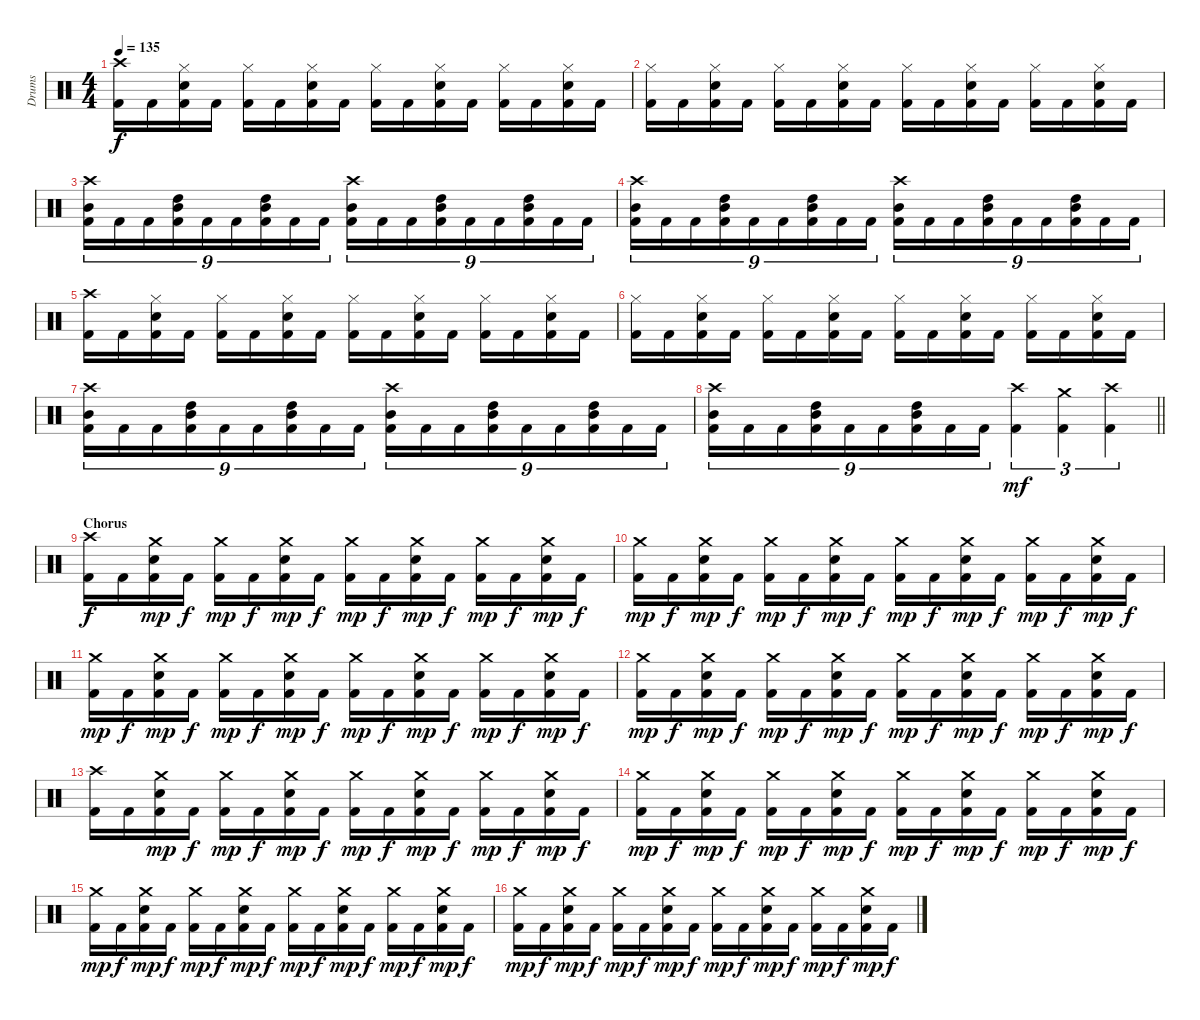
\track ("Drums" "Drums") {instrument percussion}
\staff {score}
\articulation defaults
\ts (4 4)
\tempo 135
\clef neutral
\ks c
("Crash high (hit)" "Kick (hit) 2").16{dy f} "Kick (hit) 2".16 ("Hi-Hat (closed)" "Snare (hit) 2" "Kick (hit) 2").16 "Kick (hit) 2".16 ("Hi-Hat (closed)" "Kick (hit) 2").16 "Kick (hit) 2".16 ("Hi-Hat (closed)" "Snare (hit) 2" "Kick (hit) 2").16 "Kick (hit) 2".16 ("Hi-Hat (closed)" "Kick (hit) 2").16 "Kick (hit) 2".16 ("Hi-Hat (closed)" "Snare (hit) 2" "Kick (hit) 2").16 "Kick (hit) 2".16 ("Hi-Hat (closed)" "Kick (hit) 2").16 "Kick (hit) 2".16 ("Hi-Hat (closed)" "Snare (hit) 2" "Kick (hit) 2").16 "Kick (hit) 2".16 |
("Hi-Hat (closed)" "Kick (hit) 2").16 "Kick (hit) 2".16 ("Hi-Hat (closed)" "Snare (hit) 2" "Kick (hit) 2").16 "Kick (hit) 2".16 ("Hi-Hat (closed)" "Kick (hit) 2").16 "Kick (hit) 2".16 ("Hi-Hat (closed)" "Snare (hit) 2" "Kick (hit) 2").16 "Kick (hit) 2".16 ("Hi-Hat (closed)" "Kick (hit) 2").16 "Kick (hit) 2".16 ("Hi-Hat (closed)" "Snare (hit) 2" "Kick (hit) 2").16 "Kick (hit) 2".16 ("Hi-Hat (closed)" "Kick (hit) 2").16 "Kick (hit) 2".16 ("Hi-Hat (closed)" "Snare (hit) 2" "Kick (hit) 2").16 "Kick (hit) 2".16 |
("Crash high (hit)" "Mid Tom (hit)" "Kick (hit) 2").16{tu (9 8)} "Kick (hit) 2".16{tu (9 8)} "Kick (hit) 2".16{tu (9 8)} ("High Tom (hit)" "Mid Tom (hit)" "Kick (hit) 2").16{tu (9 8)} "Kick (hit) 2".16{tu (9 8)} "Kick (hit) 2".16{tu (9 8)} ("High Tom (hit)" "Mid Tom (hit)" "Kick (hit) 2").16{tu (9 8)} "Kick (hit) 2".16{tu (9 8)} "Kick (hit) 2".16{tu (9 8)} ("Crash high (hit)" "Mid Tom (hit)" "Kick (hit) 2").16{tu (9 8)} "Kick (hit) 2".16{tu (9 8)} "Kick (hit) 2".16{tu (9 8)} ("High Tom (hit)" "Mid Tom (hit)" "Kick (hit) 2").16{tu (9 8)} "Kick (hit) 2".16{tu (9 8)} "Kick (hit) 2".16{tu (9 8)} ("High Tom (hit)" "Mid Tom (hit)" "Kick (hit) 2").16{tu (9 8)} "Kick (hit) 2".16{tu (9 8)} "Kick (hit) 2".16{tu (9 8)} |
("Crash high (hit)" "Mid Tom (hit)" "Kick (hit) 2").16{tu (9 8)} "Kick (hit) 2".16{tu (9 8)} "Kick (hit) 2".16{tu (9 8)} ("High Tom (hit)" "Mid Tom (hit)" "Kick (hit) 2").16{tu (9 8)} "Kick (hit) 2".16{tu (9 8)} "Kick (hit) 2".16{tu (9 8)} ("High Tom (hit)" "Mid Tom (hit)" "Kick (hit) 2").16{tu (9 8)} "Kick (hit) 2".16{tu (9 8)} "Kick (hit) 2".16{tu (9 8)} ("Crash high (hit)" "Mid Tom (hit)" "Kick (hit) 2").16{tu (9 8)} "Kick (hit) 2".16{tu (9 8)} "Kick (hit) 2".16{tu (9 8)} ("High Tom (hit)" "Mid Tom (hit)" "Kick (hit) 2").16{tu (9 8)} "Kick (hit) 2".16{tu (9 8)} "Kick (hit) 2".16{tu (9 8)} ("High Tom (hit)" "Mid Tom (hit)" "Kick (hit) 2").16{tu (9 8)} "Kick (hit) 2".16{tu (9 8)} "Kick (hit) 2".16{tu (9 8)} |
("Crash high (hit)" "Kick (hit) 2").16 "Kick (hit) 2".16 ("Hi-Hat (closed)" "Snare (hit) 2" "Kick (hit) 2").16 "Kick (hit) 2".16 ("Hi-Hat (closed)" "Kick (hit) 2").16 "Kick (hit) 2".16 ("Hi-Hat (closed)" "Snare (hit) 2" "Kick (hit) 2").16 "Kick (hit) 2".16 ("Hi-Hat (closed)" "Kick (hit) 2").16 "Kick (hit) 2".16 ("Hi-Hat (closed)" "Snare (hit) 2" "Kick (hit) 2").16 "Kick (hit) 2".16 ("Hi-Hat (closed)" "Kick (hit) 2").16 "Kick (hit) 2".16 ("Hi-Hat (closed)" "Snare (hit) 2" "Kick (hit) 2").16 "Kick (hit) 2".16 |
("Hi-Hat (closed)" "Kick (hit) 2").16 "Kick (hit) 2".16 ("Hi-Hat (closed)" "Snare (hit) 2" "Kick (hit) 2").16 "Kick (hit) 2".16 ("Hi-Hat (closed)" "Kick (hit) 2").16 "Kick (hit) 2".16 ("Hi-Hat (closed)" "Snare (hit) 2" "Kick (hit) 2").16 "Kick (hit) 2".16 ("Hi-Hat (closed)" "Kick (hit) 2").16 "Kick (hit) 2".16 ("Hi-Hat (closed)" "Snare (hit) 2" "Kick (hit) 2").16 "Kick (hit) 2".16 ("Hi-Hat (closed)" "Kick (hit) 2").16 "Kick (hit) 2".16 ("Hi-Hat (closed)" "Snare (hit) 2" "Kick (hit) 2").16 "Kick (hit) 2".16 |
("Crash high (hit)" "Mid Tom (hit)" "Kick (hit) 2").16{tu (9 8)} "Kick (hit) 2".16{tu (9 8)} "Kick (hit) 2".16{tu (9 8)} ("High Tom (hit)" "Mid Tom (hit)" "Kick (hit) 2").16{tu (9 8)} "Kick (hit) 2".16{tu (9 8)} "Kick (hit) 2".16{tu (9 8)} ("High Tom (hit)" "Mid Tom (hit)" "Kick (hit) 2").16{tu (9 8)} "Kick (hit) 2".16{tu (9 8)} "Kick (hit) 2".16{tu (9 8)} ("Crash high (hit)" "Mid Tom (hit)" "Kick (hit) 2").16{tu (9 8)} "Kick (hit) 2".16{tu (9 8)} "Kick (hit) 2".16{tu (9 8)} ("High Tom (hit)" "Mid Tom (hit)" "Kick (hit) 2").16{tu (9 8)} "Kick (hit) 2".16{tu (9 8)} "Kick (hit) 2".16{tu (9 8)} ("High Tom (hit)" "Mid Tom (hit)" "Kick (hit) 2").16{tu (9 8)} "Kick (hit) 2".16{tu (9 8)} "Kick (hit) 2".16{tu (9 8)} |
\barLineRight lightlight
("Crash high (hit)" "Mid Tom (hit)" "Kick (hit) 2").16{tu (9 8)} "Kick (hit) 2".16{tu (9 8)} "Kick (hit) 2".16{tu (9 8)} ("High Tom (hit)" "Mid Tom (hit)" "Kick (hit) 2").16{tu (9 8)} "Kick (hit) 2".16{tu (9 8)} "Kick (hit) 2".16{tu (9 8)} ("High Tom (hit)" "Mid Tom (hit)" "Kick (hit) 2").16{tu (9 8)} "Kick (hit) 2".16{tu (9 8)} "Kick (hit) 2".16{tu (9 8)} ("Crash high (hit)" "Kick (hit) 2").4{tu (3 2) dy mf} ("Crash medium (hit)" "Kick (hit) 2").4{tu (3 2)} ("Crash high (hit)" "Kick (hit) 2").4{tu (3 2)} |
\section ("" "Chorus")
("Crash high (hit)" "Kick (hit) 2").16{dy f} "Kick (hit) 2".16 ("Crash medium (hit)" "Snare (hit) 2" "Kick (hit) 2").16{dy mp} "Kick (hit) 2".16{dy f} ("Crash medium (hit)" "Kick (hit) 2").16{dy mp} "Kick (hit) 2".16{dy f} ("Crash medium (hit)" "Snare (hit) 2" "Kick (hit) 2").16{dy mp} "Kick (hit) 2".16{dy f} ("Crash medium (hit)" "Kick (hit) 2").16{dy mp} "Kick (hit) 2".16{dy f} ("Crash medium (hit)" "Snare (hit) 2" "Kick (hit) 2").16{dy mp} "Kick (hit) 2".16{dy f} ("Crash medium (hit)" "Kick (hit) 2").16{dy mp} "Kick (hit) 2".16{dy f} ("Crash medium (hit)" "Snare (hit) 2" "Kick (hit) 2").16{dy mp} "Kick (hit) 2".16{dy f} |
("Crash medium (hit)" "Kick (hit) 2").16{dy mp} "Kick (hit) 2".16{dy f} ("Crash medium (hit)" "Snare (hit) 2" "Kick (hit) 2").16{dy mp} "Kick (hit) 2".16{dy f} ("Crash medium (hit)" "Kick (hit) 2").16{dy mp} "Kick (hit) 2".16{dy f} ("Crash medium (hit)" "Snare (hit) 2" "Kick (hit) 2").16{dy mp} "Kick (hit) 2".16{dy f} ("Crash medium (hit)" "Kick (hit) 2").16{dy mp} "Kick (hit) 2".16{dy f} ("Crash medium (hit)" "Snare (hit) 2" "Kick (hit) 2").16{dy mp} "Kick (hit) 2".16{dy f} ("Crash medium (hit)" "Kick (hit) 2").16{dy mp} "Kick (hit) 2".16{dy f} ("Crash medium (hit)" "Snare (hit) 2" "Kick (hit) 2").16{dy mp} "Kick (hit) 2".16{dy f} |
("Crash medium (hit)" "Kick (hit) 2").16{dy mp} "Kick (hit) 2".16{dy f} ("Crash medium (hit)" "Snare (hit) 2" "Kick (hit) 2").16{dy mp} "Kick (hit) 2".16{dy f} ("Crash medium (hit)" "Kick (hit) 2").16{dy mp} "Kick (hit) 2".16{dy f} ("Crash medium (hit)" "Snare (hit) 2" "Kick (hit) 2").16{dy mp} "Kick (hit) 2".16{dy f} ("Crash medium (hit)" "Kick (hit) 2").16{dy mp} "Kick (hit) 2".16{dy f} ("Crash medium (hit)" "Snare (hit) 2" "Kick (hit) 2").16{dy mp} "Kick (hit) 2".16{dy f} ("Crash medium (hit)" "Kick (hit) 2").16{dy mp} "Kick (hit) 2".16{dy f} ("Crash medium (hit)" "Snare (hit) 2" "Kick (hit) 2").16{dy mp} "Kick (hit) 2".16{dy f} |
("Crash medium (hit)" "Kick (hit) 2").16{dy mp} "Kick (hit) 2".16{dy f} ("Crash medium (hit)" "Snare (hit) 2" "Kick (hit) 2").16{dy mp} "Kick (hit) 2".16{dy f} ("Crash medium (hit)" "Kick (hit) 2").16{dy mp} "Kick (hit) 2".16{dy f} ("Crash medium (hit)" "Snare (hit) 2" "Kick (hit) 2").16{dy mp} "Kick (hit) 2".16{dy f} ("Crash medium (hit)" "Kick (hit) 2").16{dy mp} "Kick (hit) 2".16{dy f} ("Crash medium (hit)" "Snare (hit) 2" "Kick (hit) 2").16{dy mp} "Kick (hit) 2".16{dy f} ("Crash medium (hit)" "Kick (hit) 2").16{dy mp} "Kick (hit) 2".16{dy f} ("Crash medium (hit)" "Snare (hit) 2" "Kick (hit) 2").16{dy mp} "Kick (hit) 2".16{dy f} |
("Crash high (hit)" "Kick (hit) 2").16 "Kick (hit) 2".16 ("Crash medium (hit)" "Snare (hit) 2" "Kick (hit) 2").16{dy mp} "Kick (hit) 2".16{dy f} ("Crash medium (hit)" "Kick (hit) 2").16{dy mp} "Kick (hit) 2".16{dy f} ("Crash medium (hit)" "Snare (hit) 2" "Kick (hit) 2").16{dy mp} "Kick (hit) 2".16{dy f} ("Crash medium (hit)" "Kick (hit) 2").16{dy mp} "Kick (hit) 2".16{dy f} ("Crash medium (hit)" "Snare (hit) 2" "Kick (hit) 2").16{dy mp} "Kick (hit) 2".16{dy f} ("Crash medium (hit)" "Kick (hit) 2").16{dy mp} "Kick (hit) 2".16{dy f} ("Crash medium (hit)" "Snare (hit) 2" "Kick (hit) 2").16{dy mp} "Kick (hit) 2".16{dy f} |
("Crash medium (hit)" "Kick (hit) 2").16{dy mp} "Kick (hit) 2".16{dy f} ("Crash medium (hit)" "Snare (hit) 2" "Kick (hit) 2").16{dy mp} "Kick (hit) 2".16{dy f} ("Crash medium (hit)" "Kick (hit) 2").16{dy mp} "Kick (hit) 2".16{dy f} ("Crash medium (hit)" "Snare (hit) 2" "Kick (hit) 2").16{dy mp} "Kick (hit) 2".16{dy f} ("Crash medium (hit)" "Kick (hit) 2").16{dy mp} "Kick (hit) 2".16{dy f} ("Crash medium (hit)" "Snare (hit) 2" "Kick (hit) 2").16{dy mp} "Kick (hit) 2".16{dy f} ("Crash medium (hit)" "Kick (hit) 2").16{dy mp} "Kick (hit) 2".16{dy f} ("Crash medium (hit)" "Snare (hit) 2" "Kick (hit) 2").16{dy mp} "Kick (hit) 2".16{dy f} |
("Crash medium (hit)" "Kick (hit) 2").16{dy mp} "Kick (hit) 2".16{dy f} ("Crash medium (hit)" "Snare (hit) 2" "Kick (hit) 2").16{dy mp} "Kick (hit) 2".16{dy f} ("Crash medium (hit)" "Kick (hit) 2").16{dy mp} "Kick (hit) 2".16{dy f} ("Crash medium (hit)" "Snare (hit) 2" "Kick (hit) 2").16{dy mp} "Kick (hit) 2".16{dy f} ("Crash medium (hit)" "Kick (hit) 2").16{dy mp} "Kick (hit) 2".16{dy f} ("Crash medium (hit)" "Snare (hit) 2" "Kick (hit) 2").16{dy mp} "Kick (hit) 2".16{dy f} ("Crash medium (hit)" "Kick (hit) 2").16{dy mp} "Kick (hit) 2".16{dy f} ("Crash medium (hit)" "Snare (hit) 2" "Kick (hit) 2").16{dy mp} "Kick (hit) 2".16{dy f} |
("Crash medium (hit)" "Kick (hit) 2").16{dy mp} "Kick (hit) 2".16{dy f} ("Crash medium (hit)" "Snare (hit) 2" "Kick (hit) 2").16{dy mp} "Kick (hit) 2".16{dy f} ("Crash medium (hit)" "Kick (hit) 2").16{dy mp} "Kick (hit) 2".16{dy f} ("Crash medium (hit)" "Snare (hit) 2" "Kick (hit) 2").16{dy mp} "Kick (hit) 2".16{dy f} ("Crash medium (hit)" "Kick (hit) 2").16{dy mp} "Kick (hit) 2".16{dy f} ("Crash medium (hit)" "Snare (hit) 2" "Kick (hit) 2").16{dy mp} "Kick (hit) 2".16{dy f} ("Crash medium (hit)" "Kick (hit) 2").16{dy mp} "Kick (hit) 2".16{dy f} ("Crash medium (hit)" "Snare (hit) 2" "Kick (hit) 2").16{dy mp} "Kick (hit) 2".16{dy f}
